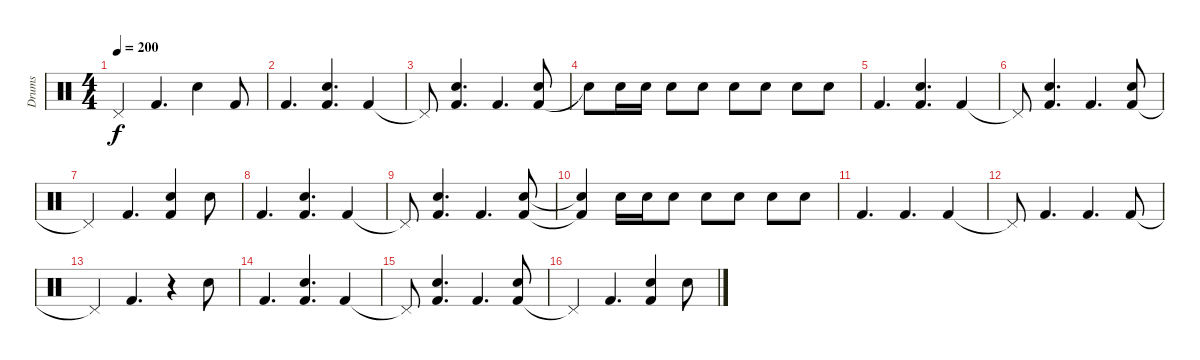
\track ("Drums" "Drums") {instrument percussion}
\staff {score}
\articulation defaults
\ts (4 4)
\tempo 200
\clef neutral
\ks c "Pedal Hi-Hat (hit)"{t}.4{dy f} "Kick (hit) 2".4{d} "Snare (hit) 2".4 "Kick (hit) 2".8
|
"Kick (hit) 2".4{d} ("Kick (hit) 2" "Snare (hit) 2").4{d} "Kick (hit) 2".4 |
"Pedal Hi-Hat (hit)"{t}.8 ("Kick (hit) 2" "Snare (hit) 2").4{d} "Kick (hit) 2".4{d} ("Kick (hit) 2" "Snare (hit) 2").8 |
"Snare (hit)"{t}.8 "Snare (hit) 2".16 "Snare (hit) 2".16 "Snare (hit) 2".8 "Snare (hit) 2".8 "Snare (hit) 2".8 "Snare (hit) 2".8 "Snare (hit) 2".8 "Snare (hit) 2".8 |
"Kick (hit) 2".4{d} ("Kick (hit) 2" "Snare (hit) 2").4{d} "Kick (hit) 2".4 |
"Pedal Hi-Hat (hit)"{t}.8 ("Kick (hit) 2" "Snare (hit) 2").4{d} "Kick (hit) 2".4{d} ("Kick (hit) 2" "Snare (hit) 2").8 |
"Pedal Hi-Hat (hit)"{t}.4 "Kick (hit) 2".4{d} ("Kick (hit) 2" "Snare (hit) 2").4 "Snare (hit) 2".8 |
"Kick (hit) 2".4{d} ("Kick (hit) 2" "Snare (hit) 2").4{d} "Kick (hit) 2".4 |
"Pedal Hi-Hat (hit)"{t}.8 ("Kick (hit) 2" "Snare (hit) 2").4{d} "Kick (hit) 2".4{d} ("Kick (hit) 2" "Snare (hit) 2").8 |
("Kick (hit) 2"{t} "Snare (hit) 2"{t}).4 "Snare (hit) 2".16 "Snare (hit) 2".16 "Snare (hit) 2".8 "Snare (hit) 2".8 "Snare (hit) 2".8 "Snare (hit) 2".8 "Snare (hit) 2".8 |
"Kick (hit) 2".4{d} "Kick (hit) 2".4{d} "Kick (hit) 2".4 |
"Pedal Hi-Hat (hit)"{t}.8 "Kick (hit) 2".4{d} "Kick (hit) 2".4{d} "Kick (hit) 2".8 |
"Pedal Hi-Hat (hit)"{t}.4 "Kick (hit) 2".4{d} r.4 "Snare (hit) 2".8 |
"Kick (hit) 2".4{d} ("Kick (hit) 2" "Snare (hit) 2").4{d} "Kick (hit) 2".4 |
"Pedal Hi-Hat (hit)"{t}.8 ("Kick (hit) 2" "Snare (hit) 2").4{d} "Kick (hit) 2".4{d} ("Kick (hit) 2" "Snare (hit) 2").8 |
"Pedal Hi-Hat (hit)"{t}.4 "Kick (hit) 2".4{d} ("Kick (hit) 2" "Snare (hit) 2").4 "Snare (hit) 2".8
